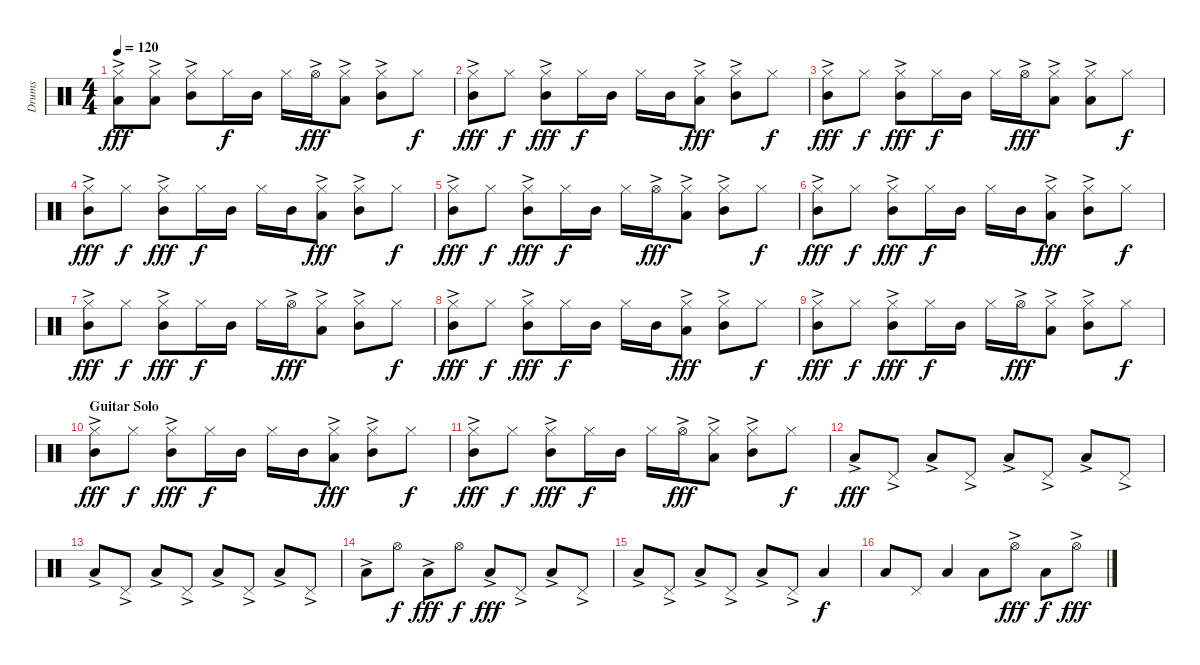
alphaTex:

\track ("Drums" "Drums") {instrument percussion}
\staff {score}
\articulation defaults
\ts (4 4)
\tempo 120
\clef neutral
\ks c
("Hi-Hat (closed)"{ac} "Low Floor Tom (hit)").8{dy fff} ("Hi-Hat (closed)"{ac} "Low Floor Tom (hit)").8 ("Hi-Hat (closed)"{ac} "Mid Tom (hit)").8 "Hi-Hat (closed)".16{dy f} "Mid Tom (hit)".16 "Hi-Hat (closed)".16 "Hi-Hat (open)"{ac}.16{dy fff} ("Hi-Hat (closed)"{ac} "Low Floor Tom (hit)").8 ("Hi-Hat (closed)"{ac} "Mid Tom (hit)").8 "Hi-Hat (closed)".8{dy f} |
("Hi-Hat (closed)"{ac} "Mid Tom (hit)").8{dy fff} "Hi-Hat (closed)".8{dy f} ("Hi-Hat (closed)"{ac} "Mid Tom (hit)").8{dy fff} "Hi-Hat (closed)".16{dy f} "Mid Tom (hit)".16 "Hi-Hat (closed)".16 "Mid Tom (hit)".16 ("Hi-Hat (closed)"{ac} "Low Floor Tom (hit)").8{dy fff} ("Hi-Hat (closed)"{ac} "Mid Tom (hit)").8 "Hi-Hat (closed)".8{dy f} |
("Hi-Hat (closed)"{ac} "Mid Tom (hit)").8{dy fff} "Hi-Hat (closed)".8{dy f} ("Hi-Hat (closed)"{ac} "Mid Tom (hit)").8{dy fff} "Hi-Hat (closed)".16{dy f} "Mid Tom (hit)".16 "Hi-Hat (closed)".16 "Hi-Hat (open)"{ac}.16{dy fff} ("Hi-Hat (closed)"{ac} "Low Floor Tom (hit)").8 ("Hi-Hat (closed)"{ac} "Low Floor Tom (hit)").8 "Hi-Hat (closed)".8{dy f} |
("Hi-Hat (closed)"{ac} "Mid Tom (hit)").8{dy fff} "Hi-Hat (closed)".8{dy f} ("Hi-Hat (closed)"{ac} "Mid Tom (hit)").8{dy fff} "Hi-Hat (closed)".16{dy f} "Mid Tom (hit)".16 "Hi-Hat (closed)".16 "Mid Tom (hit)".16 ("Hi-Hat (closed)"{ac} "Low Floor Tom (hit)").8{dy fff} ("Hi-Hat (closed)"{ac} "Mid Tom (hit)").8 "Hi-Hat (closed)".8{dy f} |
("Hi-Hat (closed)"{ac} "Mid Tom (hit)").8{dy fff} "Hi-Hat (closed)".8{dy f} ("Hi-Hat (closed)"{ac} "Mid Tom (hit)").8{dy fff} "Hi-Hat (closed)".16{dy f} "Mid Tom (hit)".16 "Hi-Hat (closed)".16 "Hi-Hat (open)"{ac}.16{dy fff} ("Hi-Hat (closed)"{ac} "Low Floor Tom (hit)").8 ("Hi-Hat (closed)"{ac} "Mid Tom (hit)").8 "Hi-Hat (closed)".8{dy f} |
("Hi-Hat (closed)"{ac} "Mid Tom (hit)").8{dy fff} "Hi-Hat (closed)".8{dy f} ("Hi-Hat (closed)"{ac} "Mid Tom (hit)").8{dy fff} "Hi-Hat (closed)".16{dy f} "Mid Tom (hit)".16 "Hi-Hat (closed)".16 "Mid Tom (hit)".16 ("Hi-Hat (closed)"{ac} "Low Floor Tom (hit)").8{dy fff} ("Hi-Hat (closed)"{ac} "Mid Tom (hit)").8 "Hi-Hat (closed)".8{dy f} |
("Hi-Hat (closed)"{ac} "Mid Tom (hit)").8{dy fff} "Hi-Hat (closed)".8{dy f} ("Hi-Hat (closed)"{ac} "Mid Tom (hit)").8{dy fff} "Hi-Hat (closed)".16{dy f} "Mid Tom (hit)".16 "Hi-Hat (closed)".16 "Hi-Hat (open)"{ac}.16{dy fff} ("Hi-Hat (closed)"{ac} "Low Floor Tom (hit)").8 ("Hi-Hat (closed)"{ac} "Mid Tom (hit)").8 "Hi-Hat (closed)".8{dy f} |
("Hi-Hat (closed)"{ac} "Mid Tom (hit)").8{dy fff} "Hi-Hat (closed)".8{dy f} ("Hi-Hat (closed)"{ac} "Mid Tom (hit)").8{dy fff} "Hi-Hat (closed)".16{dy f} "Mid Tom (hit)".16 "Hi-Hat (closed)".16 "Mid Tom (hit)".16 ("Hi-Hat (closed)"{ac} "Low Floor Tom (hit)").8{dy fff} ("Hi-Hat (closed)"{ac} "Mid Tom (hit)").8 "Hi-Hat (closed)".8{dy f} |
("Hi-Hat (closed)"{ac} "Mid Tom (hit)").8{dy fff} "Hi-Hat (closed)".8{dy f} ("Hi-Hat (closed)"{ac} "Mid Tom (hit)").8{dy fff} "Hi-Hat (closed)".16{dy f} "Mid Tom (hit)".16 "Hi-Hat (closed)".16 "Hi-Hat (open)"{ac}.16{dy fff} ("Hi-Hat (closed)"{ac} "Low Floor Tom (hit)").8 ("Hi-Hat (closed)"{ac} "Mid Tom (hit)").8 "Hi-Hat (closed)".8{dy f} |
\section ("" "Guitar Solo")
("Hi-Hat (closed)"{ac} "Mid Tom (hit)").8{dy fff} "Hi-Hat (closed)".8{dy f} ("Hi-Hat (closed)"{ac} "Mid Tom (hit)").8{dy fff} "Hi-Hat (closed)".16{dy f} "Mid Tom (hit)".16 "Hi-Hat (closed)".16 "Mid Tom (hit)".16 ("Hi-Hat (closed)"{ac} "Low Floor Tom (hit)").8{dy fff} ("Hi-Hat (closed)"{ac} "Mid Tom (hit)").8 "Hi-Hat (closed)".8{dy f} |
("Hi-Hat (closed)"{ac} "Mid Tom (hit)").8{dy fff} "Hi-Hat (closed)".8{dy f} ("Hi-Hat (closed)"{ac} "Mid Tom (hit)").8{dy fff} "Hi-Hat (closed)".16{dy f} "Mid Tom (hit)".16 "Hi-Hat (closed)".16 "Hi-Hat (open)"{ac}.16{dy fff} ("Hi-Hat (closed)"{ac} "Low Floor Tom (hit)").8 ("Hi-Hat (closed)"{ac} "Mid Tom (hit)").8 "Hi-Hat (closed)".8{dy f} |
"Low Floor Tom (hit)"{ac}.8{dy fff} "Pedal Hi-Hat (hit)"{ac}.8 "Low Floor Tom (hit)"{ac}.8 "Pedal Hi-Hat (hit)"{ac}.8 "Low Floor Tom (hit)"{ac}.8 "Pedal Hi-Hat (hit)"{ac}.8 "Low Floor Tom (hit)"{ac}.8 "Pedal Hi-Hat (hit)"{ac}.8 |
"Low Floor Tom (hit)"{ac}.8 "Pedal Hi-Hat (hit)"{ac}.8 "Low Floor Tom (hit)"{ac}.8 "Pedal Hi-Hat (hit)"{ac}.8 "Low Floor Tom (hit)"{ac}.8 "Pedal Hi-Hat (hit)"{ac}.8 "Low Floor Tom (hit)"{ac}.8 "Pedal Hi-Hat (hit)"{ac}.8 |
"Low Floor Tom (hit)"{ac}.8 "Hi-Hat (open)".8{dy f} "Low Floor Tom (hit)"{ac}.8{dy fff} "Hi-Hat (open)".8{dy f} "Low Floor Tom (hit)"{ac}.8{dy fff} "Pedal Hi-Hat (hit)"{ac}.8 "Low Floor Tom (hit)"{ac}.8 "Pedal Hi-Hat (hit)"{ac}.8 |
"Low Floor Tom (hit)"{ac}.8 "Pedal Hi-Hat (hit)"{ac}.8 "Low Floor Tom (hit)"{ac}.8 "Pedal Hi-Hat (hit)"{ac}.8 "Low Floor Tom (hit)"{ac}.8 "Pedal Hi-Hat (hit)"{ac}.8 "Low Floor Tom (hit)".4{dy f} |
"Low Floor Tom (hit)".8 "Pedal Hi-Hat (hit)".8 "Low Floor Tom (hit)".4 "Low Floor Tom (hit)".8 "Hi-Hat (open)"{ac}.8{dy fff} "Low Floor Tom (hit)".8{dy f} "Hi-Hat (open)"{ac}.8{dy fff}
